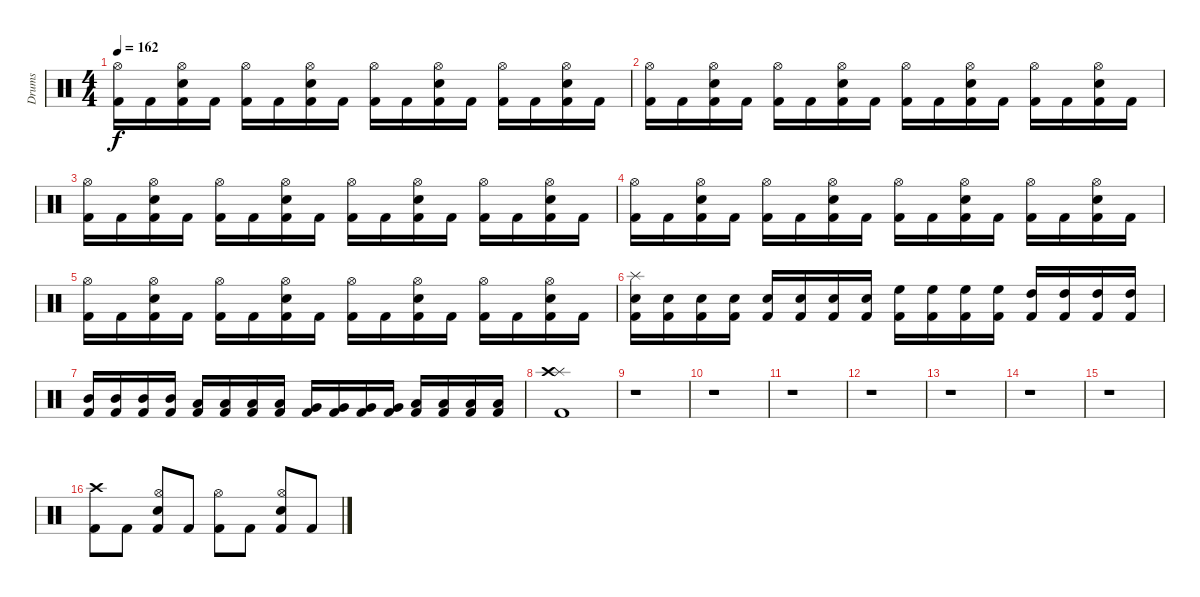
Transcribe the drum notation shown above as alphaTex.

\track ("Drums" "Drums") {instrument percussion}
\staff {score}
\articulation defaults
\ts (4 4)
\tempo 162
\clef neutral
\ks c
("Kick (hit) 2" "Hi-Hat (open)").16{dy f} "Kick (hit) 2".16 ("Kick (hit) 2" "Electric Snare (hit)" "Hi-Hat (open)").16 "Kick (hit) 2".16 ("Kick (hit) 2" "Hi-Hat (open)").16 "Kick (hit) 2".16 ("Kick (hit) 2" "Electric Snare (hit)" "Hi-Hat (open)").16 "Kick (hit) 2".16 ("Kick (hit) 2" "Hi-Hat (open)").16 "Kick (hit) 2".16 ("Kick (hit) 2" "Electric Snare (hit)" "Hi-Hat (open)").16 "Kick (hit) 2".16 ("Kick (hit) 2" "Hi-Hat (open)").16 "Kick (hit) 2".16 ("Kick (hit) 2" "Electric Snare (hit)" "Hi-Hat (open)").16 "Kick (hit) 2".16 |
("Kick (hit) 2" "Hi-Hat (open)").16 "Kick (hit) 2".16 ("Kick (hit) 2" "Electric Snare (hit)" "Hi-Hat (open)").16 "Kick (hit) 2".16 ("Kick (hit) 2" "Hi-Hat (open)").16 "Kick (hit) 2".16 ("Kick (hit) 2" "Electric Snare (hit)" "Hi-Hat (open)").16 "Kick (hit) 2".16 ("Kick (hit) 2" "Hi-Hat (open)").16 "Kick (hit) 2".16 ("Kick (hit) 2" "Electric Snare (hit)" "Hi-Hat (open)").16 "Kick (hit) 2".16 ("Kick (hit) 2" "Hi-Hat (open)").16 "Kick (hit) 2".16 ("Kick (hit) 2" "Electric Snare (hit)" "Hi-Hat (open)").16 "Kick (hit) 2".16 |
("Kick (hit) 2" "Hi-Hat (open)").16 "Kick (hit) 2".16 ("Kick (hit) 2" "Electric Snare (hit)" "Hi-Hat (open)").16 "Kick (hit) 2".16 ("Kick (hit) 2" "Hi-Hat (open)").16 "Kick (hit) 2".16 ("Kick (hit) 2" "Electric Snare (hit)" "Hi-Hat (open)").16 "Kick (hit) 2".16 ("Kick (hit) 2" "Hi-Hat (open)").16 "Kick (hit) 2".16 ("Kick (hit) 2" "Electric Snare (hit)" "Hi-Hat (open)").16 "Kick (hit) 2".16 ("Kick (hit) 2" "Hi-Hat (open)").16 "Kick (hit) 2".16 ("Kick (hit) 2" "Electric Snare (hit)" "Hi-Hat (open)").16 "Kick (hit) 2".16 |
("Kick (hit) 2" "Hi-Hat (open)").16 "Kick (hit) 2".16 ("Kick (hit) 2" "Electric Snare (hit)" "Hi-Hat (open)").16 "Kick (hit) 2".16 ("Kick (hit) 2" "Hi-Hat (open)").16 "Kick (hit) 2".16 ("Kick (hit) 2" "Electric Snare (hit)" "Hi-Hat (open)").16 "Kick (hit) 2".16 ("Kick (hit) 2" "Hi-Hat (open)").16 "Kick (hit) 2".16 ("Kick (hit) 2" "Electric Snare (hit)" "Hi-Hat (open)").16 "Kick (hit) 2".16 ("Kick (hit) 2" "Hi-Hat (open)").16 "Kick (hit) 2".16 ("Kick (hit) 2" "Electric Snare (hit)" "Hi-Hat (open)").16 "Kick (hit) 2".16 |
("Kick (hit) 2" "Hi-Hat (open)").16 "Kick (hit) 2".16 ("Kick (hit) 2" "Electric Snare (hit)" "Hi-Hat (open)").16 "Kick (hit) 2".16 ("Kick (hit) 2" "Hi-Hat (open)").16 "Kick (hit) 2".16 ("Kick (hit) 2" "Electric Snare (hit)" "Hi-Hat (open)").16 "Kick (hit) 2".16 ("Kick (hit) 2" "Hi-Hat (open)").16 "Kick (hit) 2".16 ("Kick (hit) 2" "Electric Snare (hit)" "Hi-Hat (open)").16 "Kick (hit) 2".16 ("Kick (hit) 2" "Hi-Hat (open)").16 "Kick (hit) 2".16 ("Kick (hit) 2" "Electric Snare (hit)" "Hi-Hat (open)").16 "Kick (hit) 2".16 |
("Kick (hit) 2" "Electric Snare (hit)" "Splash (hit)").16 ("Kick (hit) 2" "Electric Snare (hit)").16 ("Kick (hit) 2" "Electric Snare (hit)").16 ("Kick (hit) 2" "Electric Snare (hit)").16 ("Kick (hit) 2" "Electric Snare (hit)").16 ("Kick (hit) 2" "Electric Snare (hit)").16 ("Kick (hit) 2" "Electric Snare (hit)").16 ("Kick (hit) 2" "Electric Snare (hit)").16 ("Kick (hit) 2" "High Floor Tom (hit)").16 ("Kick (hit) 2" "High Floor Tom (hit)").16 ("Kick (hit) 2" "High Floor Tom (hit)").16 ("Kick (hit) 2" "High Floor Tom (hit)").16 ("Kick (hit) 2" "High Tom (hit)").16 ("Kick (hit) 2" "High Tom (hit)").16 ("Kick (hit) 2" "High Tom (hit)").16 ("Kick (hit) 2" "High Tom (hit)").16 |
("Kick (hit) 2" "Mid Tom (hit)").16 ("Kick (hit) 2" "Mid Tom (hit)").16 ("Kick (hit) 2" "Mid Tom (hit)").16 ("Kick (hit) 2" "Mid Tom (hit)").16 ("Kick (hit) 2" "Low Tom (hit)").16 ("Kick (hit) 2" "Low Tom (hit)").16 ("Kick (hit) 2" "Low Tom (hit)").16 ("Kick (hit) 2" "Low Tom (hit)").16 ("Kick (hit) 2" "Very Low Tom (hit)").16 ("Kick (hit) 2" "Very Low Tom (hit)").16 ("Kick (hit) 2" "Very Low Tom (hit)").16 ("Kick (hit) 2" "Very Low Tom (hit)").16 ("Kick (hit) 2" "Low Floor Tom (hit)").16 ("Kick (hit) 2" "Low Floor Tom (hit)").16 ("Kick (hit) 2" "Low Floor Tom (hit)").16 ("Kick (hit) 2" "Low Floor Tom (hit)").16 |
\section ("" "")
("Kick (hit) 2" "Splash (hit)" "Crash high (hit)").1 |
r.1 |
r.1 |
r.1 |
r.1 |
r.1 |
r.1 |
r.1 |
\section ("" "")
("Kick (hit) 2" "Crash high (hit)").8 "Kick (hit) 2".8 ("Kick (hit) 2" "Electric Snare (hit)" "Hi-Hat (open)").8 "Kick (hit) 2".8 ("Kick (hit) 2" "Hi-Hat (open)").8 "Kick (hit) 2".8 ("Kick (hit) 2" "Electric Snare (hit)" "Hi-Hat (open)").8 "Kick (hit) 2".8
